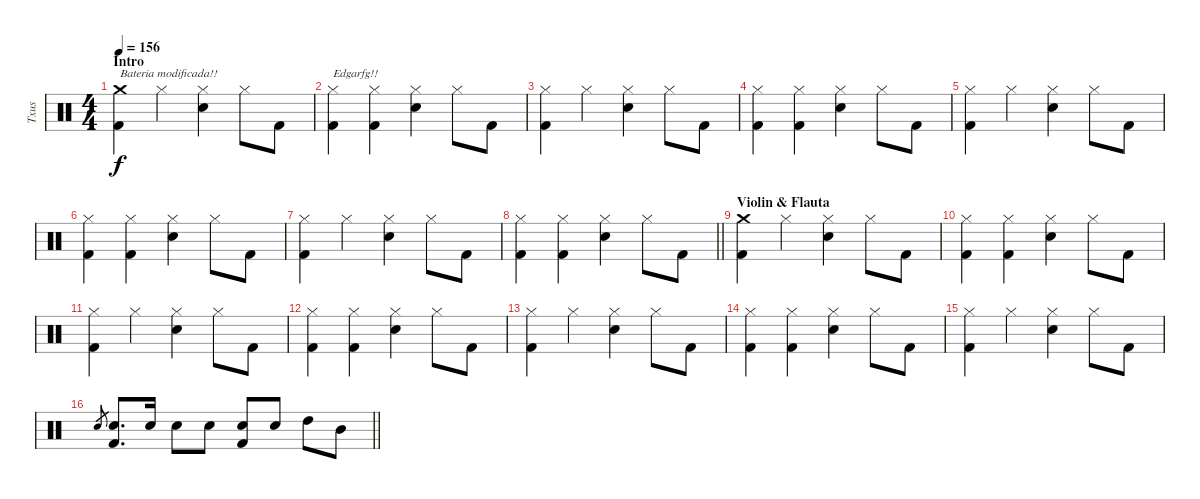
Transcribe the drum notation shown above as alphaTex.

\track ("Txus" "Txus") {instrument percussion}
\staff {score}
\articulation defaults
\ts (4 4)
\section ("" "Intro")
\tempo 156
\clef neutral
\ks c
("Crash medium (hit)" "Kick (hit) 2").4{txt "Bateria modificada!!" dy f} "Hi-Hat (closed)".4 ("Snare (hit) 2" "Hi-Hat (closed)").4 "Hi-Hat (closed)".8 "Kick (hit) 2".8 |
("Kick (hit) 2" "Hi-Hat (closed)").4{txt "Edgarfg!!"} ("Hi-Hat (closed)" "Kick (hit) 2").4 ("Hi-Hat (closed)" "Snare (hit) 2").4 "Hi-Hat (closed)".8 "Kick (hit) 2".8 |
("Hi-Hat (closed)" "Kick (hit) 2").4 "Hi-Hat (closed)".4 ("Snare (hit) 2" "Hi-Hat (closed)").4 "Hi-Hat (closed)".8 "Kick (hit) 2".8 |
("Kick (hit) 2" "Hi-Hat (closed)").4 ("Hi-Hat (closed)" "Kick (hit) 2").4 ("Hi-Hat (closed)" "Snare (hit) 2").4 "Hi-Hat (closed)".8 "Kick (hit) 2".8 |
("Hi-Hat (closed)" "Kick (hit) 2").4 "Hi-Hat (closed)".4 ("Snare (hit) 2" "Hi-Hat (closed)").4 "Hi-Hat (closed)".8 "Kick (hit) 2".8 |
("Kick (hit) 2" "Hi-Hat (closed)").4 ("Hi-Hat (closed)" "Kick (hit) 2").4 ("Hi-Hat (closed)" "Snare (hit) 2").4 "Hi-Hat (closed)".8 "Kick (hit) 2".8 |
("Hi-Hat (closed)" "Kick (hit) 2").4 "Hi-Hat (closed)".4 ("Snare (hit) 2" "Hi-Hat (closed)").4 "Hi-Hat (closed)".8 "Kick (hit) 2".8 |
\barLineRight lightlight
("Kick (hit) 2" "Hi-Hat (closed)").4 ("Hi-Hat (closed)" "Kick (hit) 2").4 ("Hi-Hat (closed)" "Snare (hit) 2").4 "Hi-Hat (closed)".8 "Kick (hit) 2".8 |
\section ("" "Violin & Flauta")
("Crash medium (hit)" "Kick (hit) 2").4 "Hi-Hat (closed)".4 ("Snare (hit) 2" "Hi-Hat (closed)").4 "Hi-Hat (closed)".8 "Kick (hit) 2".8 |
("Kick (hit) 2" "Hi-Hat (closed)").4 ("Hi-Hat (closed)" "Kick (hit) 2").4 ("Hi-Hat (closed)" "Snare (hit) 2").4 "Hi-Hat (closed)".8 "Kick (hit) 2".8 |
("Hi-Hat (closed)" "Kick (hit) 2").4 "Hi-Hat (closed)".4 ("Snare (hit) 2" "Hi-Hat (closed)").4 "Hi-Hat (closed)".8 "Kick (hit) 2".8 |
("Kick (hit) 2" "Hi-Hat (closed)").4 ("Hi-Hat (closed)" "Kick (hit) 2").4 ("Hi-Hat (closed)" "Snare (hit) 2").4 "Hi-Hat (closed)".8 "Kick (hit) 2".8 |
("Hi-Hat (closed)" "Kick (hit) 2").4 "Hi-Hat (closed)".4 ("Snare (hit) 2" "Hi-Hat (closed)").4 "Hi-Hat (closed)".8 "Kick (hit) 2".8 |
("Kick (hit) 2" "Hi-Hat (closed)").4 ("Hi-Hat (closed)" "Kick (hit) 2").4 ("Hi-Hat (closed)" "Snare (hit) 2").4 "Hi-Hat (closed)".8 "Kick (hit) 2".8 |
("Hi-Hat (closed)" "Kick (hit) 2").4 "Hi-Hat (closed)".4 ("Snare (hit) 2" "Hi-Hat (closed)").4 "Hi-Hat (closed)".8 "Kick (hit) 2".8 |
\barLineRight lightlight "Snare (hit) 2".8{gr}
("Kick (hit) 2" "Snare (hit) 2").8{d} "Snare (hit) 2".16 "Snare (hit) 2".8 "Snare (hit) 2".8 ("Kick (hit) 2" "Snare (hit) 2").8 "Snare (hit) 2".8 "High Tom (hit)".8 "Mid Tom (hit)".8
